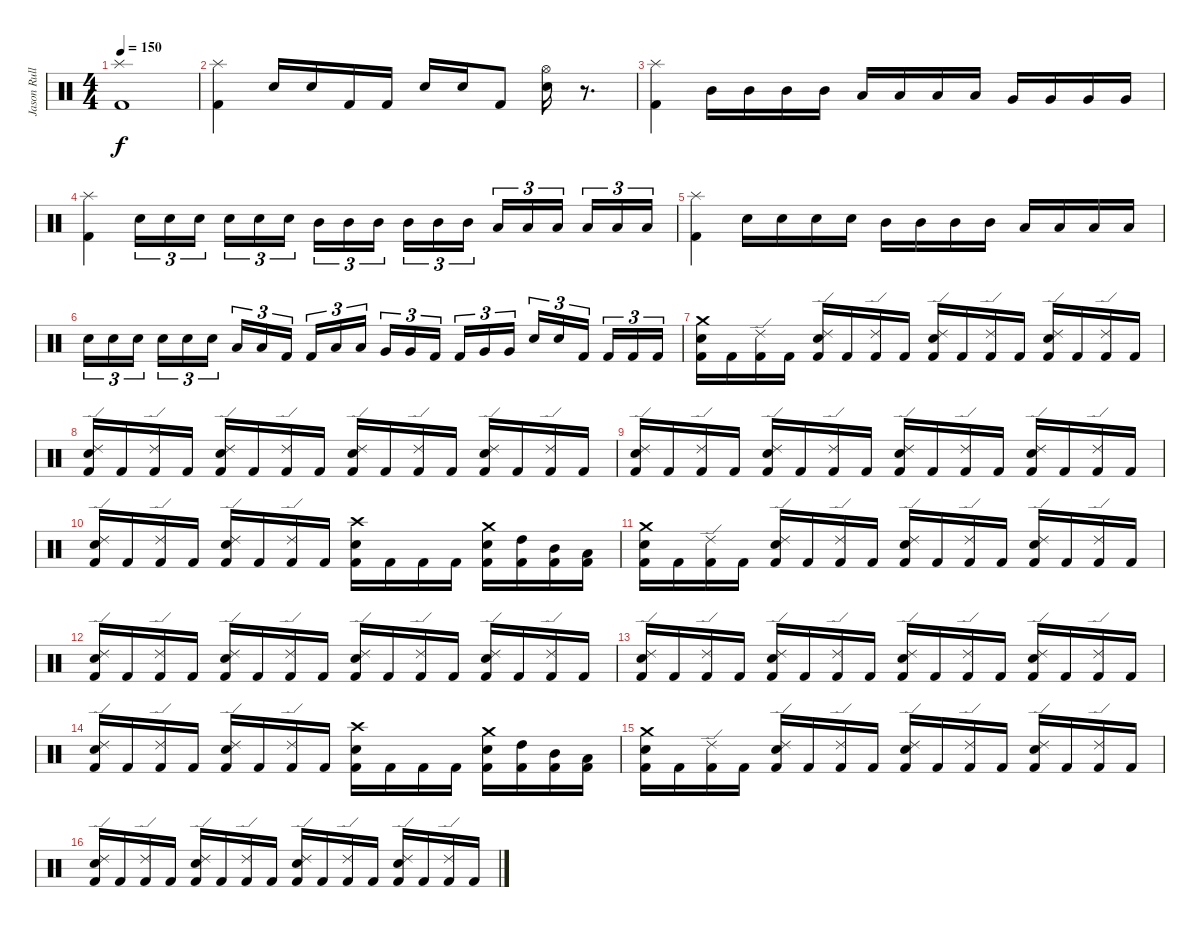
\track ("Jason Rullo" "Jason Rull") {instrument percussion}
\staff {score}
\articulation defaults
\ts (4 4)
\tempo 150
\clef neutral
\ks c
("Splash (hit)" "Kick (hit) 2").1{dy f} |
("Splash (hit)" "Kick (hit) 2").4 "Electric Snare (hit)".16 "Electric Snare (hit)".16 "Kick (hit) 2".16 "Kick (hit) 2".16 "Electric Snare (hit)".16 "Electric Snare (hit)".16 "Kick (hit) 2".8 ("Hi-Hat (open)" "Electric Snare (hit)").16 r.8{d} |
("Splash (hit)" "Kick (hit) 2").4 "Mid Tom (hit)".16 "Mid Tom (hit)".16 "Mid Tom (hit)".16 "Mid Tom (hit)".16 "Low Tom (hit)".16 "Low Tom (hit)".16 "Low Tom (hit)".16 "Low Tom (hit)".16 "Very Low Tom (hit)".16 "Very Low Tom (hit)".16 "Very Low Tom (hit)".16 "Very Low Tom (hit)".16 |
("Splash (hit)" "Kick (hit) 2").4 "Electric Snare (hit)".16{tu (3 2)} "Electric Snare (hit)".16{tu (3 2)} "Electric Snare (hit)".16{tu (3 2)} "Electric Snare (hit)".16{tu (3 2)} "Electric Snare (hit)".16{tu (3 2)} "Electric Snare (hit)".16{tu (3 2)} "Mid Tom (hit)".16{tu (3 2)} "Mid Tom (hit)".16{tu (3 2)} "Mid Tom (hit)".16{tu (3 2)} "Mid Tom (hit)".16{tu (3 2)} "Mid Tom (hit)".16{tu (3 2)} "Mid Tom (hit)".16{tu (3 2)} "Low Tom (hit)".16{tu (3 2)} "Low Tom (hit)".16{tu (3 2)} "Low Tom (hit)".16{tu (3 2)} "Low Tom (hit)".16{tu (3 2)} "Low Tom (hit)".16{tu (3 2)} "Low Tom (hit)".16{tu (3 2)} |
("Splash (hit)" "Kick (hit) 2").4 "Electric Snare (hit)".16 "Electric Snare (hit)".16 "Electric Snare (hit)".16 "Electric Snare (hit)".16 "Mid Tom (hit)".16 "Mid Tom (hit)".16 "Mid Tom (hit)".16 "Mid Tom (hit)".16 "Low Tom (hit)".16 "Low Tom (hit)".16 "Low Tom (hit)".16 "Low Tom (hit)".16 |
"Electric Snare (hit)".16{tu (3 2)} "Electric Snare (hit)".16{tu (3 2)} "Electric Snare (hit)".16{tu (3 2)} "Electric Snare (hit)".16{tu (3 2)} "Electric Snare (hit)".16{tu (3 2)} "Electric Snare (hit)".16{tu (3 2)} "Low Tom (hit)".16{tu (3 2)} "Low Tom (hit)".16{tu (3 2)} "Kick (hit) 2".16{tu (3 2)} "Kick (hit) 2".16{tu (3 2)} "Low Tom (hit)".16{tu (3 2)} "Low Tom (hit)".16{tu (3 2)} "Very Low Tom (hit)".16{tu (3 2)} "Very Low Tom (hit)".16{tu (3 2)} "Kick (hit) 2".16{tu (3 2)} "Kick (hit) 2".16{tu (3 2)} "Very Low Tom (hit)".16{tu (3 2)} "Very Low Tom (hit)".16{tu (3 2)} "Electric Snare (hit)".16{tu (3 2)} "Electric Snare (hit)".16{tu (3 2)} "Kick (hit) 2".16{tu (3 2)} "Kick (hit) 2".16{tu (3 2)} "Kick (hit) 2".16{tu (3 2)} "Kick (hit) 2".16{tu (3 2)} |
("Crash medium (hit)" "Electric Snare (hit)" "Kick (hit) 2").16 "Kick (hit) 2".16 ("Ride (edge) 2" "Kick (hit) 2").16 "Kick (hit) 2".16 ("Ride (edge) 2" "Electric Snare (hit)" "Kick (hit) 2").16 "Kick (hit) 2".16 ("Ride (edge) 2" "Kick (hit) 2").16 "Kick (hit) 2".16 ("Ride (edge) 2" "Electric Snare (hit)" "Kick (hit) 2").16 "Kick (hit) 2".16 ("Ride (edge) 2" "Kick (hit) 2").16 "Kick (hit) 2".16 ("Ride (edge) 2" "Electric Snare (hit)" "Kick (hit) 2").16 "Kick (hit) 2".16 ("Ride (edge) 2" "Kick (hit) 2").16 "Kick (hit) 2".16 |
("Ride (edge) 2" "Electric Snare (hit)" "Kick (hit) 2").16 "Kick (hit) 2".16 ("Ride (edge) 2" "Kick (hit) 2").16 "Kick (hit) 2".16 ("Ride (edge) 2" "Electric Snare (hit)" "Kick (hit) 2").16 "Kick (hit) 2".16 ("Ride (edge) 2" "Kick (hit) 2").16 "Kick (hit) 2".16 ("Ride (edge) 2" "Electric Snare (hit)" "Kick (hit) 2").16 "Kick (hit) 2".16 ("Ride (edge) 2" "Kick (hit) 2").16 "Kick (hit) 2".16 ("Ride (edge) 2" "Electric Snare (hit)" "Kick (hit) 2").16 "Kick (hit) 2".16 ("Ride (edge) 2" "Kick (hit) 2").16 "Kick (hit) 2".16 |
("Ride (edge) 2" "Electric Snare (hit)" "Kick (hit) 2").16 "Kick (hit) 2".16 ("Ride (edge) 2" "Kick (hit) 2").16 "Kick (hit) 2".16 ("Ride (edge) 2" "Electric Snare (hit)" "Kick (hit) 2").16 "Kick (hit) 2".16 ("Ride (edge) 2" "Kick (hit) 2").16 "Kick (hit) 2".16 ("Ride (edge) 2" "Electric Snare (hit)" "Kick (hit) 2").16 "Kick (hit) 2".16 ("Ride (edge) 2" "Kick (hit) 2").16 "Kick (hit) 2".16 ("Ride (edge) 2" "Electric Snare (hit)" "Kick (hit) 2").16 "Kick (hit) 2".16 ("Ride (edge) 2" "Kick (hit) 2").16 "Kick (hit) 2".16 |
("Ride (edge) 2" "Electric Snare (hit)" "Kick (hit) 2").16 "Kick (hit) 2".16 ("Ride (edge) 2" "Kick (hit) 2").16 "Kick (hit) 2".16 ("Ride (edge) 2" "Electric Snare (hit)" "Kick (hit) 2").16 "Kick (hit) 2".16 ("Ride (edge) 2" "Kick (hit) 2").16 "Kick (hit) 2".16 ("Crash high (hit)" "Electric Snare (hit)" "Kick (hit) 2").16 "Kick (hit) 2".16 "Kick (hit) 2".16 "Kick (hit) 2".16 ("Crash medium (hit)" "Electric Snare (hit)" "Kick (hit) 2").16 ("High Tom (hit)" "Kick (hit) 2").16 ("Mid Tom (hit)" "Kick (hit) 2").16 ("Low Tom (hit)" "Kick (hit) 2").16 |
("Crash medium (hit)" "Electric Snare (hit)" "Kick (hit) 2").16 "Kick (hit) 2".16 ("Ride (edge) 2" "Kick (hit) 2").16 "Kick (hit) 2".16 ("Ride (edge) 2" "Electric Snare (hit)" "Kick (hit) 2").16 "Kick (hit) 2".16 ("Ride (edge) 2" "Kick (hit) 2").16 "Kick (hit) 2".16 ("Ride (edge) 2" "Electric Snare (hit)" "Kick (hit) 2").16 "Kick (hit) 2".16 ("Ride (edge) 2" "Kick (hit) 2").16 "Kick (hit) 2".16 ("Ride (edge) 2" "Electric Snare (hit)" "Kick (hit) 2").16 "Kick (hit) 2".16 ("Ride (edge) 2" "Kick (hit) 2").16 "Kick (hit) 2".16 |
("Ride (edge) 2" "Electric Snare (hit)" "Kick (hit) 2").16 "Kick (hit) 2".16 ("Ride (edge) 2" "Kick (hit) 2").16 "Kick (hit) 2".16 ("Ride (edge) 2" "Electric Snare (hit)" "Kick (hit) 2").16 "Kick (hit) 2".16 ("Ride (edge) 2" "Kick (hit) 2").16 "Kick (hit) 2".16 ("Ride (edge) 2" "Electric Snare (hit)" "Kick (hit) 2").16 "Kick (hit) 2".16 ("Ride (edge) 2" "Kick (hit) 2").16 "Kick (hit) 2".16 ("Ride (edge) 2" "Electric Snare (hit)" "Kick (hit) 2").16 "Kick (hit) 2".16 ("Ride (edge) 2" "Kick (hit) 2").16 "Kick (hit) 2".16 |
("Ride (edge) 2" "Electric Snare (hit)" "Kick (hit) 2").16 "Kick (hit) 2".16 ("Ride (edge) 2" "Kick (hit) 2").16 "Kick (hit) 2".16 ("Ride (edge) 2" "Electric Snare (hit)" "Kick (hit) 2").16 "Kick (hit) 2".16 ("Ride (edge) 2" "Kick (hit) 2").16 "Kick (hit) 2".16 ("Ride (edge) 2" "Electric Snare (hit)" "Kick (hit) 2").16 "Kick (hit) 2".16 ("Ride (edge) 2" "Kick (hit) 2").16 "Kick (hit) 2".16 ("Ride (edge) 2" "Electric Snare (hit)" "Kick (hit) 2").16 "Kick (hit) 2".16 ("Ride (edge) 2" "Kick (hit) 2").16 "Kick (hit) 2".16 |
("Ride (edge) 2" "Electric Snare (hit)" "Kick (hit) 2").16 "Kick (hit) 2".16 ("Ride (edge) 2" "Kick (hit) 2").16 "Kick (hit) 2".16 ("Ride (edge) 2" "Electric Snare (hit)" "Kick (hit) 2").16 "Kick (hit) 2".16 ("Ride (edge) 2" "Kick (hit) 2").16 "Kick (hit) 2".16 ("Crash high (hit)" "Electric Snare (hit)" "Kick (hit) 2").16 "Kick (hit) 2".16 "Kick (hit) 2".16 "Kick (hit) 2".16 ("Crash medium (hit)" "Electric Snare (hit)" "Kick (hit) 2").16 ("High Tom (hit)" "Kick (hit) 2").16 ("Mid Tom (hit)" "Kick (hit) 2").16 ("Low Tom (hit)" "Kick (hit) 2").16 |
("Crash medium (hit)" "Electric Snare (hit)" "Kick (hit) 2").16 "Kick (hit) 2".16 ("Ride (edge) 2" "Kick (hit) 2").16 "Kick (hit) 2".16 ("Ride (edge) 2" "Electric Snare (hit)" "Kick (hit) 2").16 "Kick (hit) 2".16 ("Ride (edge) 2" "Kick (hit) 2").16 "Kick (hit) 2".16 ("Ride (edge) 2" "Electric Snare (hit)" "Kick (hit) 2").16 "Kick (hit) 2".16 ("Ride (edge) 2" "Kick (hit) 2").16 "Kick (hit) 2".16 ("Ride (edge) 2" "Electric Snare (hit)" "Kick (hit) 2").16 "Kick (hit) 2".16 ("Ride (edge) 2" "Kick (hit) 2").16 "Kick (hit) 2".16 |
("Ride (edge) 2" "Electric Snare (hit)" "Kick (hit) 2").16 "Kick (hit) 2".16 ("Ride (edge) 2" "Kick (hit) 2").16 "Kick (hit) 2".16 ("Ride (edge) 2" "Electric Snare (hit)" "Kick (hit) 2").16 "Kick (hit) 2".16 ("Ride (edge) 2" "Kick (hit) 2").16 "Kick (hit) 2".16 ("Ride (edge) 2" "Electric Snare (hit)" "Kick (hit) 2").16 "Kick (hit) 2".16 ("Ride (edge) 2" "Kick (hit) 2").16 "Kick (hit) 2".16 ("Ride (edge) 2" "Electric Snare (hit)" "Kick (hit) 2").16 "Kick (hit) 2".16 ("Ride (edge) 2" "Kick (hit) 2").16 "Kick (hit) 2".16
